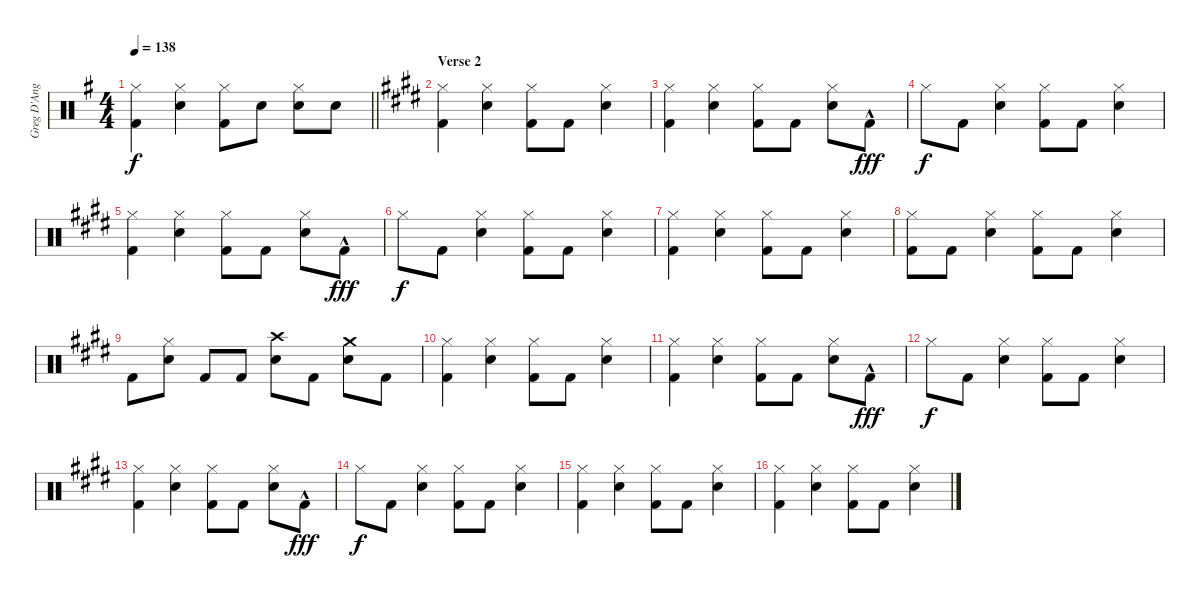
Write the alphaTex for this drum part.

\track ("Greg D'Angelo" "Greg D'Ang") {instrument percussion}
\staff {score}
\articulation defaults
\ts (4 4)
\tempo 138
\clef neutral
\barLineRight lightlight
\ks g
("Hi-Hat (closed)" "Kick (hit) 2").4{dy f} ("Hi-Hat (closed)" "Snare (hit) 2").4 ("Hi-Hat (closed)" "Kick (hit) 2").8 "Snare (hit) 2".8 ("Hi-Hat (closed)" "Snare (hit) 2").8 "Snare (hit) 2".8 |
\section ("" "Verse 2")
\ks e
("Hi-Hat (closed)" "Kick (hit) 2").4 ("Hi-Hat (closed)" "Snare (hit) 2").4 ("Hi-Hat (closed)" "Kick (hit) 2").8 "Kick (hit) 2".8 ("Hi-Hat (closed)" "Snare (hit) 2").4 |
\ks c#minor
("Hi-Hat (closed)" "Kick (hit) 2").4 ("Hi-Hat (closed)" "Snare (hit) 2").4 ("Hi-Hat (closed)" "Kick (hit) 2").8 "Kick (hit) 2".8 ("Hi-Hat (closed)" "Snare (hit) 2").8 "Kick (hit) 2"{hac}.8{dy fff} |
"Hi-Hat (closed)".8{dy f} "Kick (hit) 2".8 ("Hi-Hat (closed)" "Snare (hit) 2").4 ("Hi-Hat (closed)" "Kick (hit) 2").8 "Kick (hit) 2".8 ("Hi-Hat (closed)" "Snare (hit) 2").4 |
("Hi-Hat (closed)" "Kick (hit) 2").4 ("Hi-Hat (closed)" "Snare (hit) 2").4 ("Hi-Hat (closed)" "Kick (hit) 2").8 "Kick (hit) 2".8 ("Hi-Hat (closed)" "Snare (hit) 2").8 "Kick (hit) 2"{hac}.8{dy fff} |
"Hi-Hat (closed)".8{dy f} "Kick (hit) 2".8 ("Hi-Hat (closed)" "Snare (hit) 2").4 ("Hi-Hat (closed)" "Kick (hit) 2").8 "Kick (hit) 2".8 ("Hi-Hat (closed)" "Snare (hit) 2").4 |
("Hi-Hat (closed)" "Kick (hit) 2").4 ("Hi-Hat (closed)" "Snare (hit) 2").4 ("Hi-Hat (closed)" "Kick (hit) 2").8 "Kick (hit) 2".8 ("Hi-Hat (closed)" "Snare (hit) 2").4 |
("Hi-Hat (closed)" "Kick (hit) 2").8 "Kick (hit) 2".8 ("Hi-Hat (closed)" "Snare (hit) 2").4 ("Hi-Hat (closed)" "Kick (hit) 2").8 "Kick (hit) 2".8 ("Hi-Hat (closed)" "Snare (hit) 2").4 |
"Kick (hit) 2".8 ("Hi-Hat (closed)" "Snare (hit) 2").8 "Kick (hit) 2".8 "Kick (hit) 2".8 ("Crash high (hit)" "Snare (hit) 2").8 "Kick (hit) 2".8 ("Crash medium (hit)" "Snare (hit) 2").8 "Kick (hit) 2".8 |
\ks e
("Hi-Hat (closed)" "Kick (hit) 2").4 ("Hi-Hat (closed)" "Snare (hit) 2").4 ("Hi-Hat (closed)" "Kick (hit) 2").8 "Kick (hit) 2".8 ("Hi-Hat (closed)" "Snare (hit) 2").4 |
\ks c#minor
("Hi-Hat (closed)" "Kick (hit) 2").4 ("Hi-Hat (closed)" "Snare (hit) 2").4 ("Hi-Hat (closed)" "Kick (hit) 2").8 "Kick (hit) 2".8 ("Hi-Hat (closed)" "Snare (hit) 2").8 "Kick (hit) 2"{hac}.8{dy fff} |
"Hi-Hat (closed)".8{dy f} "Kick (hit) 2".8 ("Hi-Hat (closed)" "Snare (hit) 2").4 ("Hi-Hat (closed)" "Kick (hit) 2").8 "Kick (hit) 2".8 ("Hi-Hat (closed)" "Snare (hit) 2").4 |
("Hi-Hat (closed)" "Kick (hit) 2").4 ("Hi-Hat (closed)" "Snare (hit) 2").4 ("Hi-Hat (closed)" "Kick (hit) 2").8 "Kick (hit) 2".8 ("Hi-Hat (closed)" "Snare (hit) 2").8 "Kick (hit) 2"{hac}.8{dy fff} |
"Hi-Hat (closed)".8{dy f} "Kick (hit) 2".8 ("Hi-Hat (closed)" "Snare (hit) 2").4 ("Hi-Hat (closed)" "Kick (hit) 2").8 "Kick (hit) 2".8 ("Hi-Hat (closed)" "Snare (hit) 2").4 |
("Hi-Hat (closed)" "Kick (hit) 2").4 ("Hi-Hat (closed)" "Snare (hit) 2").4 ("Hi-Hat (closed)" "Kick (hit) 2").8 "Kick (hit) 2".8 ("Hi-Hat (closed)" "Snare (hit) 2").4 |
("Hi-Hat (closed)" "Kick (hit) 2").4 ("Hi-Hat (closed)" "Snare (hit) 2").4 ("Hi-Hat (closed)" "Kick (hit) 2").8 "Kick (hit) 2".8 ("Hi-Hat (closed)" "Snare (hit) 2").4
